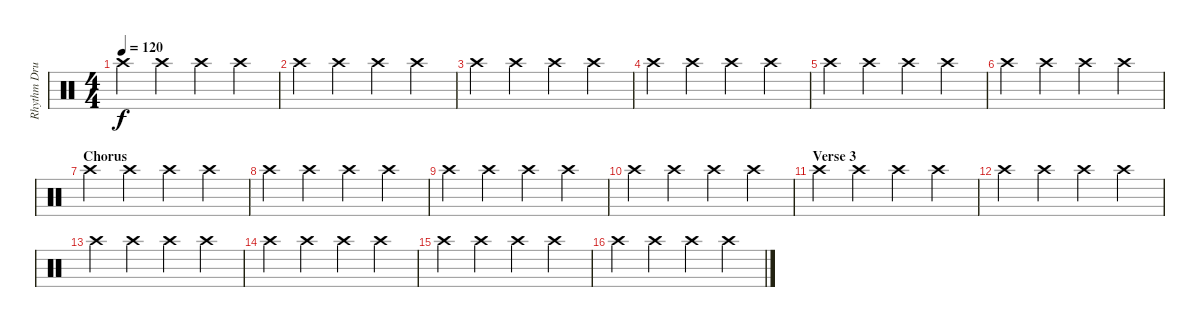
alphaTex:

\track ("Rhythm Drums (crash cymbal)" "Rhythm Dru") {instrument percussion}
\staff {score}
\articulation defaults
\ts (4 4)
\tempo 120
\clef neutral
\ks c "Crash high (hit)".4{dy f} "Crash high (hit)".4 "Crash high (hit)".4 "Crash high (hit)".4
|
"Crash high (hit)".4 "Crash high (hit)".4 "Crash high (hit)".4 "Crash high (hit)".4 |
"Crash high (hit)".4 "Crash high (hit)".4 "Crash high (hit)".4 "Crash high (hit)".4 |
"Crash high (hit)".4 "Crash high (hit)".4 "Crash high (hit)".4 "Crash high (hit)".4 |
"Crash high (hit)".4 "Crash high (hit)".4 "Crash high (hit)".4 "Crash high (hit)".4 |
"Crash high (hit)".4 "Crash high (hit)".4 "Crash high (hit)".4 "Crash high (hit)".4 |
\section ("" "Chorus")
"Crash high (hit)".4 "Crash high (hit)".4 "Crash high (hit)".4 "Crash high (hit)".4 |
"Crash high (hit)".4 "Crash high (hit)".4 "Crash high (hit)".4 "Crash high (hit)".4 |
"Crash high (hit)".4 "Crash high (hit)".4 "Crash high (hit)".4 "Crash high (hit)".4 |
"Crash high (hit)".4 "Crash high (hit)".4 "Crash high (hit)".4 "Crash high (hit)".4 |
\section ("" "Verse 3")
"Crash high (hit)".4 "Crash high (hit)".4 "Crash high (hit)".4 "Crash high (hit)".4 |
"Crash high (hit)".4 "Crash high (hit)".4 "Crash high (hit)".4 "Crash high (hit)".4 |
"Crash high (hit)".4 "Crash high (hit)".4 "Crash high (hit)".4 "Crash high (hit)".4 |
"Crash high (hit)".4 "Crash high (hit)".4 "Crash high (hit)".4 "Crash high (hit)".4 |
"Crash high (hit)".4 "Crash high (hit)".4 "Crash high (hit)".4 "Crash high (hit)".4 |
"Crash high (hit)".4 "Crash high (hit)".4 "Crash high (hit)".4 "Crash high (hit)".4
